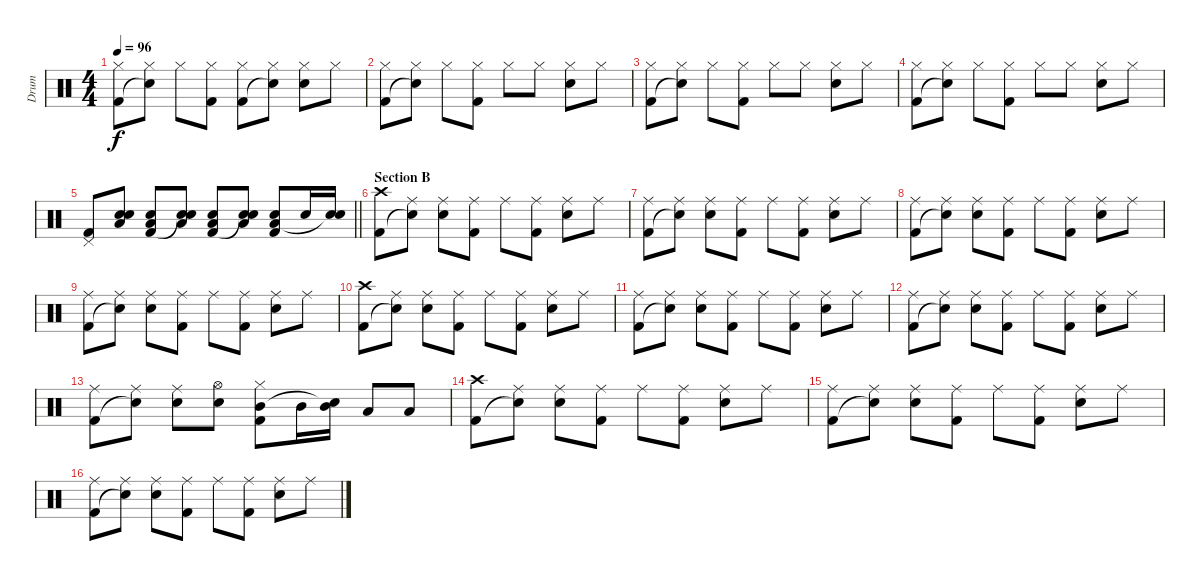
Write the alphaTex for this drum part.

\track ("Drum" "Drum") {instrument percussion}
\staff {score}
\articulation defaults
\ts (4 4)
\tempo 96
\clef neutral
\ks c
("Hi-Hat (closed)" "Kick (hit) 2").8{dy f} ("Hi-Hat (closed)" "Snare (hit)"{t}).8 "Hi-Hat (closed)".8 ("Hi-Hat (closed)" "Kick (hit) 2").8 ("Hi-Hat (closed)" "Kick (hit) 2").8 ("Hi-Hat (closed)" "Snare (hit)"{t}).8 ("Hi-Hat (closed)" "Snare (hit) 2").8 "Hi-Hat (closed)".8 |
("Hi-Hat (closed)" "Kick (hit) 2").8 ("Hi-Hat (closed)" "Snare (hit)"{t}).8 "Hi-Hat (closed)".8 ("Hi-Hat (closed)" "Kick (hit) 2").8 "Hi-Hat (closed)".8 "Hi-Hat (closed)".8 ("Hi-Hat (closed)" "Snare (hit) 2").8 "Hi-Hat (closed)".8 |
("Hi-Hat (closed)" "Kick (hit) 2").8 ("Hi-Hat (closed)" "Snare (hit)"{t}).8 "Hi-Hat (closed)".8 ("Hi-Hat (closed)" "Kick (hit) 2").8 "Hi-Hat (closed)".8 "Hi-Hat (closed)".8 ("Hi-Hat (closed)" "Snare (hit) 2").8 "Hi-Hat (closed)".8 |
("Hi-Hat (closed)" "Kick (hit) 2").8 ("Hi-Hat (closed)" "Snare (hit)"{t}).8 "Hi-Hat (closed)".8 ("Hi-Hat (closed)" "Kick (hit) 2").8 "Hi-Hat (closed)".8 "Hi-Hat (closed)".8 ("Hi-Hat (closed)" "Snare (hit) 2").8 "Hi-Hat (closed)".8 |
\barLineRight lightlight
("Pedal Hi-Hat (hit)" "Kick (hit) 2").8 ("Snare (hit) 2" "Low Tom (hit)" "Snare (hit)").8 ("Snare (hit) 2" "Low Tom (hit)" "Kick (hit) 2").8 ("Snare (hit) 2" "Low Tom (hit)" "Snare (hit)"{t}).8 ("Snare (hit) 2" "Low Tom (hit)" "Kick (hit) 2").8 ("Snare (hit) 2" "Low Tom (hit)" "Snare (hit)"{t}).8 ("Snare (hit) 2" "Low Tom (hit)" "Kick (hit) 2").8 "Snare (hit) 2".16 ("Snare (hit) 2" "Snare (hit)"{t}).16 |
\section ("" "Section B")
("Crash high (hit)" "Kick (hit) 2").8 ("Ride (middle)" "Snare (hit)"{t}).8 ("Ride (middle)" "Snare (hit) 2").8 ("Ride (middle)" "Kick (hit) 2").8 "Ride (middle)".8 ("Ride (middle)" "Kick (hit) 2").8 ("Ride (middle)" "Snare (hit) 2").8 "Ride (middle)".8 |
("Ride (middle)" "Kick (hit) 2").8 ("Ride (middle)" "Snare (hit)"{t}).8 ("Ride (middle)" "Snare (hit) 2").8 ("Ride (middle)" "Kick (hit) 2").8 "Ride (middle)".8 ("Ride (middle)" "Kick (hit) 2").8 ("Ride (middle)" "Snare (hit) 2").8 "Ride (middle)".8 |
("Ride (middle)" "Kick (hit) 2").8 ("Ride (middle)" "Snare (hit)"{t}).8 ("Ride (middle)" "Snare (hit) 2").8 ("Ride (middle)" "Kick (hit) 2").8 "Ride (middle)".8 ("Ride (middle)" "Kick (hit) 2").8 ("Ride (middle)" "Snare (hit) 2").8 "Ride (middle)".8 |
("Ride (middle)" "Kick (hit) 2").8 ("Ride (middle)" "Snare (hit)"{t}).8 ("Ride (middle)" "Snare (hit) 2").8 ("Ride (middle)" "Kick (hit) 2").8 "Ride (middle)".8 ("Ride (middle)" "Kick (hit) 2").8 ("Ride (middle)" "Snare (hit) 2").8 "Ride (middle)".8 |
("Crash high (hit)" "Kick (hit) 2").8 ("Ride (middle)" "Snare (hit)"{t}).8 ("Ride (middle)" "Snare (hit) 2").8 ("Ride (middle)" "Kick (hit) 2").8 "Ride (middle)".8 ("Ride (middle)" "Kick (hit) 2").8 ("Ride (middle)" "Snare (hit) 2").8 "Ride (middle)".8 |
("Ride (middle)" "Kick (hit) 2").8 ("Ride (middle)" "Snare (hit)"{t}).8 ("Ride (middle)" "Snare (hit) 2").8 ("Ride (middle)" "Kick (hit) 2").8 "Ride (middle)".8 ("Ride (middle)" "Kick (hit) 2").8 ("Ride (middle)" "Snare (hit) 2").8 "Ride (middle)".8 |
("Ride (middle)" "Kick (hit) 2").8 ("Ride (middle)" "Snare (hit)"{t}).8 ("Ride (middle)" "Snare (hit) 2").8 ("Ride (middle)" "Kick (hit) 2").8 "Ride (middle)".8 ("Ride (middle)" "Kick (hit) 2").8 ("Ride (middle)" "Snare (hit) 2").8 "Ride (middle)".8 |
("Ride (middle)" "Kick (hit) 2").8 ("Ride (middle)" "Snare (hit)"{t}).8 ("Ride (middle)" "Snare (hit) 2").8 ("Hi-Hat (open)" "Snare (hit) 2").8 ("Hi-Hat (closed)" "Mid Tom (hit)" "Kick (hit) 2").8 "Mid Tom (hit)".16 ("Mid Tom (hit)" "Snare (hit)"{t}).16 "Low Tom (hit)".8 "Low Tom (hit)".8 |
("Crash high (hit)" "Kick (hit) 2").8 ("Ride (middle)" "Snare (hit)"{t}).8 ("Ride (middle)" "Snare (hit) 2").8 ("Ride (middle)" "Kick (hit) 2").8 "Ride (middle)".8 ("Ride (middle)" "Kick (hit) 2").8 ("Ride (middle)" "Snare (hit) 2").8 "Ride (middle)".8 |
("Ride (middle)" "Kick (hit) 2").8 ("Ride (middle)" "Snare (hit)"{t}).8 ("Ride (middle)" "Snare (hit) 2").8 ("Ride (middle)" "Kick (hit) 2").8 "Ride (middle)".8 ("Ride (middle)" "Kick (hit) 2").8 ("Ride (middle)" "Snare (hit) 2").8 "Ride (middle)".8 |
("Ride (middle)" "Kick (hit) 2").8 ("Ride (middle)" "Snare (hit)"{t}).8 ("Ride (middle)" "Snare (hit) 2").8 ("Ride (middle)" "Kick (hit) 2").8 "Ride (middle)".8 ("Ride (middle)" "Kick (hit) 2").8 ("Ride (middle)" "Snare (hit) 2").8 "Ride (middle)".8
